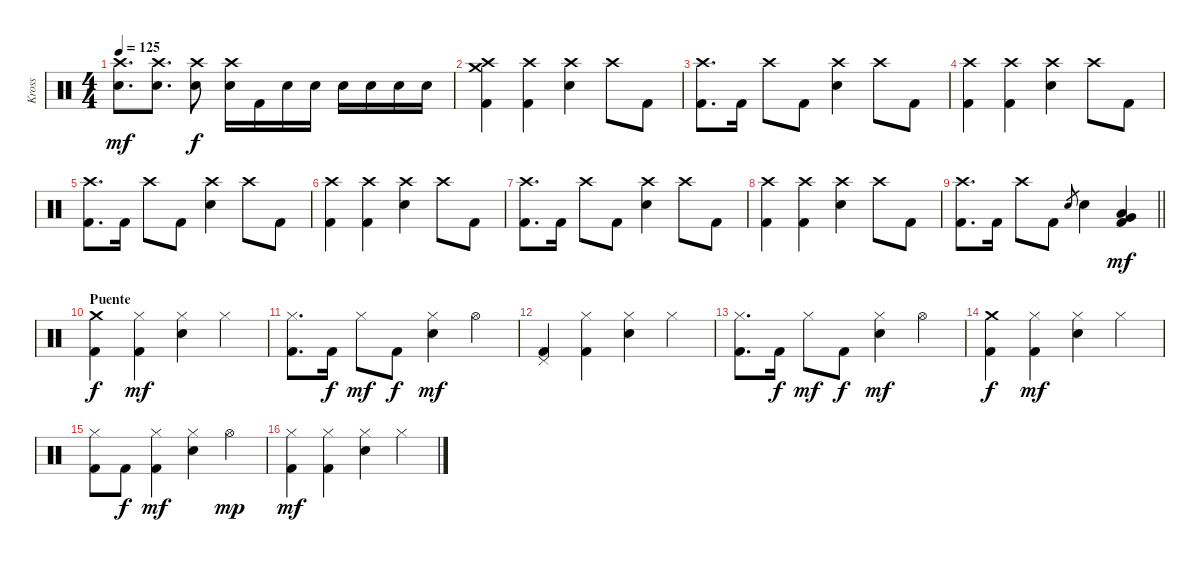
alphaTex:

\track ("Kross" "Kross") {instrument percussion}
\staff {score}
\articulation defaults
\ts (4 4)
\tempo 125
\clef neutral
\ks c
("Crash high (hit)" "Snare (hit) 2").8{d dy mf} ("Crash high (hit)" "Snare (hit) 2").8{d} ("Crash high (hit)" "Snare (hit) 2").8{dy f} ("Crash high (hit)" "Snare (hit) 2").16 "Kick (hit) 2".16 "Snare (hit) 2".16 "Snare (hit) 2".16 "Snare (hit) 2".16 "Snare (hit) 2".16 "Snare (hit) 2".16 "Snare (hit) 2".16 |
("Crash high (hit)" "Crash medium (hit)" "Kick (hit) 2").4 ("Crash high (hit)" "Kick (hit) 2").4 ("Crash high (hit)" "Snare (hit) 2").4 "Crash high (hit)".8 "Kick (hit) 2".8 |
("Crash high (hit)" "Kick (hit) 2").8{d} "Kick (hit) 2".16 "Crash high (hit)".8 "Kick (hit) 2".8 ("Crash high (hit)" "Snare (hit) 2").4 "Crash high (hit)".8 "Kick (hit) 2".8 |
("Crash high (hit)" "Kick (hit) 2").4 ("Crash high (hit)" "Kick (hit) 2").4 ("Crash high (hit)" "Snare (hit) 2").4 "Crash high (hit)".8 "Kick (hit) 2".8 |
("Crash high (hit)" "Kick (hit) 2").8{d} "Kick (hit) 2".16 "Crash high (hit)".8 "Kick (hit) 2".8 ("Crash high (hit)" "Snare (hit) 2").4 "Crash high (hit)".8 "Kick (hit) 2".8 |
("Crash high (hit)" "Kick (hit) 2").4 ("Crash high (hit)" "Kick (hit) 2").4 ("Crash high (hit)" "Snare (hit) 2").4 "Crash high (hit)".8 "Kick (hit) 2".8 |
("Crash high (hit)" "Kick (hit) 2").8{d} "Kick (hit) 2".16 "Crash high (hit)".8 "Kick (hit) 2".8 ("Crash high (hit)" "Snare (hit) 2").4 "Crash high (hit)".8 "Kick (hit) 2".8 |
("Crash high (hit)" "Kick (hit) 2").4 ("Crash high (hit)" "Kick (hit) 2").4 ("Crash high (hit)" "Snare (hit) 2").4 "Crash high (hit)".8 "Kick (hit) 2".8 |
\barLineRight lightlight
("Crash high (hit)" "Kick (hit) 2").8{d} "Kick (hit) 2".16 "Crash high (hit)".8 "Kick (hit) 2".8 "Snare (hit) 2".8{gr} "Snare (hit) 2".4 ("Low Tom (hit)" "Very Low Tom (hit)" "Kick (hit) 2").4{dy mf} |
\section ("" "Puente")
("Crash medium (hit)" "Kick (hit) 2").4{dy f} ("Hi-Hat (closed)" "Kick (hit) 2").4{dy mf} ("Hi-Hat (closed)" "Snare (hit) 2").4 "Hi-Hat (closed)".4 |
("Hi-Hat (closed)" "Kick (hit) 2").8{d} "Kick (hit) 2".16{dy f} "Hi-Hat (closed)".8{dy mf} "Kick (hit) 2".8{dy f} ("Hi-Hat (closed)" "Snare (hit) 2").4{dy mf} "Hi-Hat (open)".4 |
("Pedal Hi-Hat (hit)" "Kick (hit) 2").4 ("Hi-Hat (closed)" "Kick (hit) 2").4 ("Hi-Hat (closed)" "Snare (hit) 2").4 "Hi-Hat (closed)".4 |
("Hi-Hat (closed)" "Kick (hit) 2").8{d} "Kick (hit) 2".16{dy f} "Hi-Hat (closed)".8{dy mf} "Kick (hit) 2".8{dy f} ("Hi-Hat (closed)" "Snare (hit) 2").4{dy mf} "Hi-Hat (open)".4 |
("Crash medium (hit)" "Kick (hit) 2").4{dy f} ("Hi-Hat (closed)" "Kick (hit) 2").4{dy mf} ("Hi-Hat (closed)" "Snare (hit) 2").4 "Hi-Hat (closed)".4 |
("Hi-Hat (closed)" "Kick (hit) 2").8 "Kick (hit) 2".8{dy f} ("Hi-Hat (closed)" "Kick (hit) 2").4{dy mf} ("Hi-Hat (closed)" "Snare (hit) 2").4 "Hi-Hat (open)".4{dy mp} |
("Hi-Hat (closed)" "Kick (hit) 2").4{dy mf} ("Hi-Hat (closed)" "Kick (hit) 2").4 ("Hi-Hat (closed)" "Snare (hit) 2").4 "Hi-Hat (closed)".4
